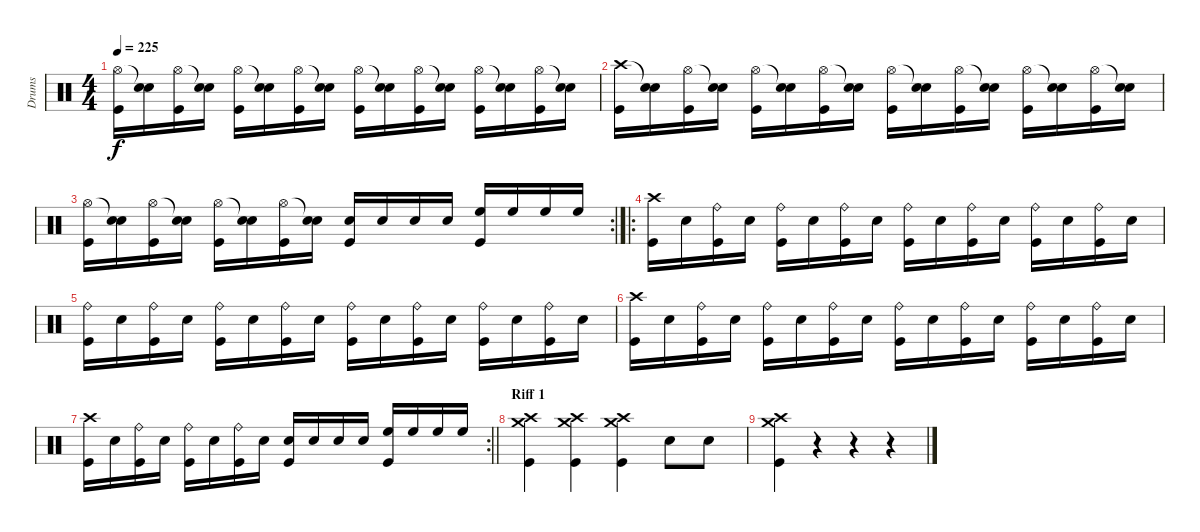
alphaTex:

\track ("Drums" "Drums") {instrument percussion}
\staff {score}
\articulation defaults
\ts (4 4)
\tempo 225
\clef neutral
\ks c
("Hi-Hat (open)" "Kick (hit)").16{dy f} ("Snare (hit)"{t} "Electric Snare (hit)").16 ("Hi-Hat (open)" "Kick (hit)").16 ("Snare (hit)"{t} "Electric Snare (hit)").16 ("Hi-Hat (open)" "Kick (hit)").16 ("Snare (hit)"{t} "Electric Snare (hit)").16 ("Hi-Hat (open)" "Kick (hit)").16 ("Snare (hit)"{t} "Electric Snare (hit)").16 ("Hi-Hat (open)" "Kick (hit)").16 ("Snare (hit)"{t} "Electric Snare (hit)").16 ("Hi-Hat (open)" "Kick (hit)").16 ("Snare (hit)"{t} "Electric Snare (hit)").16 ("Hi-Hat (open)" "Kick (hit)").16 ("Snare (hit)"{t} "Electric Snare (hit)").16 ("Hi-Hat (open)" "Kick (hit)").16 ("Snare (hit)"{t} "Electric Snare (hit)").16 |
("Crash high (hit)" "Kick (hit)").16 ("Snare (hit)"{t} "Electric Snare (hit)").16 ("Hi-Hat (open)" "Kick (hit)").16 ("Snare (hit)"{t} "Electric Snare (hit)").16 ("Hi-Hat (open)" "Kick (hit)").16 ("Snare (hit)"{t} "Electric Snare (hit)").16 ("Hi-Hat (open)" "Kick (hit)").16 ("Snare (hit)"{t} "Electric Snare (hit)").16 ("Hi-Hat (open)" "Kick (hit)").16 ("Snare (hit)"{t} "Electric Snare (hit)").16 ("Hi-Hat (open)" "Kick (hit)").16 ("Snare (hit)"{t} "Electric Snare (hit)").16 ("Hi-Hat (open)" "Kick (hit)").16 ("Snare (hit)"{t} "Electric Snare (hit)").16 ("Hi-Hat (open)" "Kick (hit)").16 ("Snare (hit)"{t} "Electric Snare (hit)").16 |
\rc 2
("Hi-Hat (open)" "Kick (hit)").16 ("Snare (hit)"{t} "Electric Snare (hit)").16 ("Hi-Hat (open)" "Kick (hit)").16 ("Snare (hit)"{t} "Electric Snare (hit)").16 ("Hi-Hat (open)" "Kick (hit)").16 ("Snare (hit)"{t} "Electric Snare (hit)").16 ("Hi-Hat (open)" "Kick (hit)").16 ("Snare (hit)"{t} "Electric Snare (hit)").16 ("Electric Snare (hit)" "Kick (hit)").16 "Electric Snare (hit)".16 "Electric Snare (hit)".16 "Electric Snare (hit)".16 ("High Floor Tom (hit)" "Kick (hit)").16 "High Floor Tom (hit)".16 "High Floor Tom (hit)".16 "High Floor Tom (hit)".16 |
\ro
("Crash high (hit)" "Kick (hit)").16 "Electric Snare (hit)".16 ("Ride (bell)" "Kick (hit)").16 "Electric Snare (hit)".16 ("Ride (bell)" "Kick (hit)").16 "Electric Snare (hit)".16 ("Ride (bell)" "Kick (hit)").16 "Electric Snare (hit)".16 ("Ride (bell)" "Kick (hit)").16 "Electric Snare (hit)".16 ("Ride (bell)" "Kick (hit)").16 "Electric Snare (hit)".16 ("Ride (bell)" "Kick (hit)").16 "Electric Snare (hit)".16 ("Ride (bell)" "Kick (hit)").16 "Electric Snare (hit)".16 |
("Ride (bell)" "Kick (hit)").16 "Electric Snare (hit)".16 ("Ride (bell)" "Kick (hit)").16 "Electric Snare (hit)".16 ("Ride (bell)" "Kick (hit)").16 "Electric Snare (hit)".16 ("Ride (bell)" "Kick (hit)").16 "Electric Snare (hit)".16 ("Ride (bell)" "Kick (hit)").16 "Electric Snare (hit)".16 ("Ride (bell)" "Kick (hit)").16 "Electric Snare (hit)".16 ("Ride (bell)" "Kick (hit)").16 "Electric Snare (hit)".16 ("Ride (bell)" "Kick (hit)").16 "Electric Snare (hit)".16 |
("Crash high (hit)" "Kick (hit)").16 "Electric Snare (hit)".16 ("Ride (bell)" "Kick (hit)").16 "Electric Snare (hit)".16 ("Ride (bell)" "Kick (hit)").16 "Electric Snare (hit)".16 ("Ride (bell)" "Kick (hit)").16 "Electric Snare (hit)".16 ("Ride (bell)" "Kick (hit)").16 "Electric Snare (hit)".16 ("Ride (bell)" "Kick (hit)").16 "Electric Snare (hit)".16 ("Ride (bell)" "Kick (hit)").16 "Electric Snare (hit)".16 ("Ride (bell)" "Kick (hit)").16 "Electric Snare (hit)".16 |
\rc 2
\barLineRight lightlight
("Crash high (hit)" "Kick (hit)").16 "Electric Snare (hit)".16 ("Ride (bell)" "Kick (hit)").16 "Electric Snare (hit)".16 ("Ride (bell)" "Kick (hit)").16 "Electric Snare (hit)".16 ("Ride (bell)" "Kick (hit)").16 "Electric Snare (hit)".16 ("Electric Snare (hit)" "Kick (hit)").16 "Electric Snare (hit)".16 "Electric Snare (hit)".16 "Electric Snare (hit)".16 ("High Floor Tom (hit)" "Kick (hit)").16 "High Floor Tom (hit)".16 "High Floor Tom (hit)".16 "High Floor Tom (hit)".16 |
\section ("" "Riff 1")
("Crash high (hit)" "Crash medium (hit)" "Kick (hit)").4 ("Crash high (hit)" "Crash medium (hit)" "Kick (hit)").4 ("Crash high (hit)" "Crash medium (hit)" "Kick (hit)").4 "Electric Snare (hit)".8 "Electric Snare (hit)".8 |
("Crash high (hit)" "Crash medium (hit)" "Kick (hit)").4 r.4 r.4 r.4
